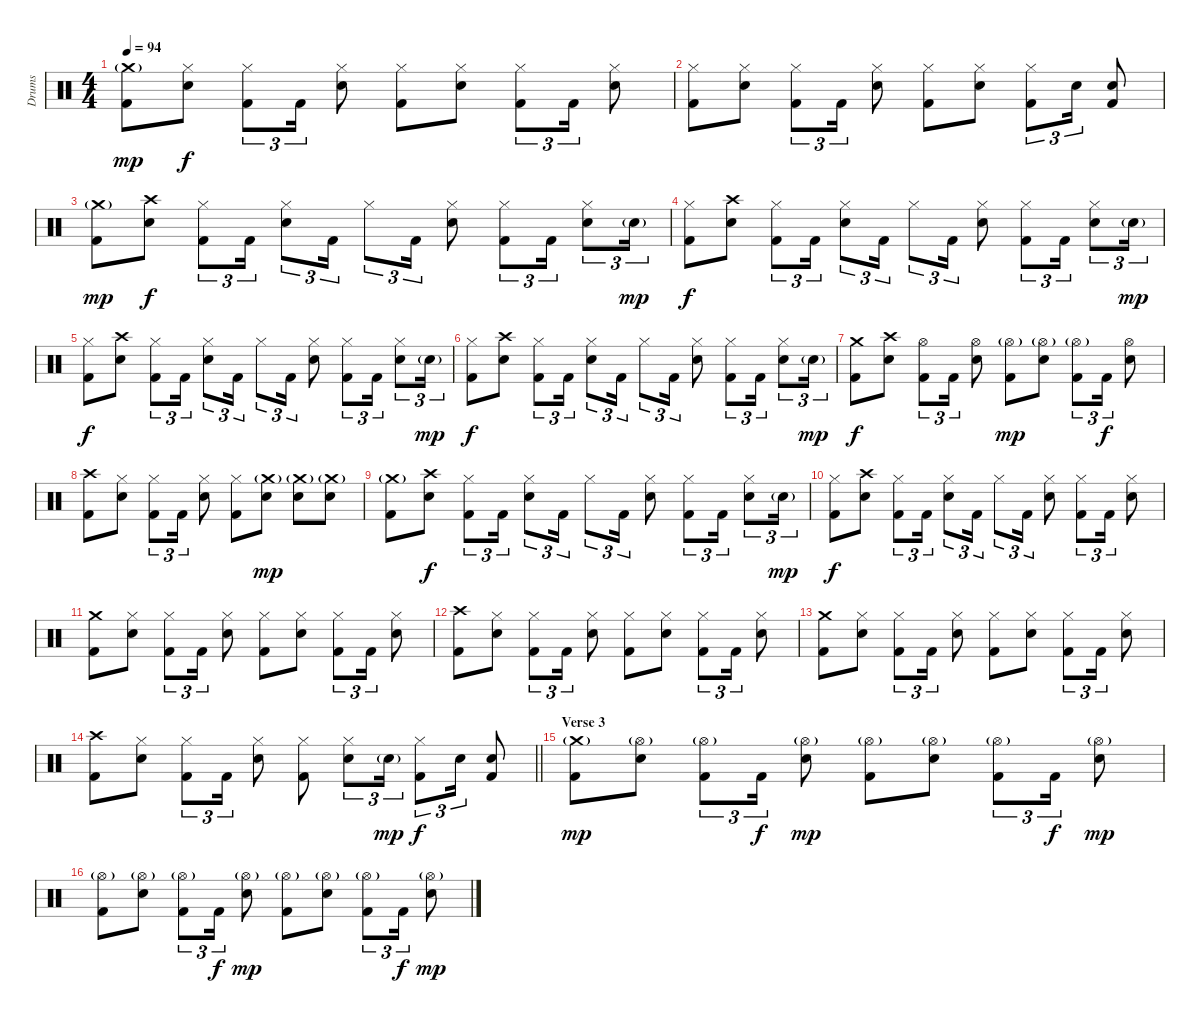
\track ("Drums" "Drums") {instrument percussion}
\staff {score}
\articulation defaults
\ts (4 4)
\tempo 94
\clef neutral
\ks c
("Crash medium (hit)"{g} "Kick (hit) 2").8{dy mp} ("Hi-Hat (closed)" "Electric Snare (hit)").8{dy f} ("Hi-Hat (closed)" "Kick (hit) 2").8{tu (3 2)} "Kick (hit) 2".16{tu (3 2)} ("Hi-Hat (closed)" "Electric Snare (hit)").8 ("Hi-Hat (closed)" "Kick (hit) 2").8 ("Hi-Hat (closed)" "Electric Snare (hit)").8 ("Hi-Hat (closed)" "Kick (hit) 2").8{tu (3 2)} "Kick (hit) 2".16{tu (3 2)} ("Hi-Hat (closed)" "Electric Snare (hit)").8 |
("Hi-Hat (closed)" "Kick (hit) 2").8 ("Hi-Hat (closed)" "Electric Snare (hit)").8 ("Hi-Hat (closed)" "Kick (hit) 2").8{tu (3 2)} "Kick (hit) 2".16{tu (3 2)} ("Hi-Hat (closed)" "Electric Snare (hit)").8 ("Hi-Hat (closed)" "Kick (hit) 2").8 ("Hi-Hat (closed)" "Electric Snare (hit)").8 ("Hi-Hat (closed)" "Kick (hit) 2").8{tu (3 2)} "Electric Snare (hit)".16{tu (3 2)} ("Electric Snare (hit)" "Kick (hit) 2").8 |
("Crash medium (hit)"{g} "Kick (hit) 2").8{dy mp} ("Crash high (hit)" "Electric Snare (hit)").8{dy f} ("Hi-Hat (closed)" "Kick (hit) 2").8{tu (3 2)} "Kick (hit) 2".16{tu (3 2)} ("Hi-Hat (closed)" "Electric Snare (hit)").8{tu (3 2)} "Kick (hit) 2".16{tu (3 2)} "Hi-Hat (closed)".8{tu (3 2)} "Kick (hit) 2".16{tu (3 2)} ("Hi-Hat (closed)" "Electric Snare (hit)").8 ("Hi-Hat (closed)" "Kick (hit) 2").8{tu (3 2)} "Kick (hit) 2".16{tu (3 2)} ("Hi-Hat (closed)" "Electric Snare (hit)").8{tu (3 2)} "Electric Snare (hit)"{g}.16{tu (3 2) dy mp} |
("Hi-Hat (closed)" "Kick (hit) 2").8{dy f} ("Crash high (hit)" "Electric Snare (hit)").8 ("Hi-Hat (closed)" "Kick (hit) 2").8{tu (3 2)} "Kick (hit) 2".16{tu (3 2)} ("Hi-Hat (closed)" "Electric Snare (hit)").8{tu (3 2)} "Kick (hit) 2".16{tu (3 2)} "Hi-Hat (closed)".8{tu (3 2)} "Kick (hit) 2".16{tu (3 2)} ("Hi-Hat (closed)" "Electric Snare (hit)").8 ("Hi-Hat (closed)" "Kick (hit) 2").8{tu (3 2)} "Kick (hit) 2".16{tu (3 2)} ("Hi-Hat (closed)" "Electric Snare (hit)").8{tu (3 2)} "Electric Snare (hit)"{g}.16{tu (3 2) dy mp} |
("Hi-Hat (closed)" "Kick (hit) 2").8{dy f} ("Crash high (hit)" "Electric Snare (hit)").8 ("Hi-Hat (closed)" "Kick (hit) 2").8{tu (3 2)} "Kick (hit) 2".16{tu (3 2)} ("Hi-Hat (closed)" "Electric Snare (hit)").8{tu (3 2)} "Kick (hit) 2".16{tu (3 2)} "Hi-Hat (closed)".8{tu (3 2)} "Kick (hit) 2".16{tu (3 2)} ("Hi-Hat (closed)" "Electric Snare (hit)").8 ("Hi-Hat (closed)" "Kick (hit) 2").8{tu (3 2)} "Kick (hit) 2".16{tu (3 2)} ("Hi-Hat (closed)" "Electric Snare (hit)").8{tu (3 2)} "Electric Snare (hit)"{g}.16{tu (3 2) dy mp} |
("Hi-Hat (closed)" "Kick (hit) 2").8{dy f} ("Crash high (hit)" "Electric Snare (hit)").8 ("Hi-Hat (closed)" "Kick (hit) 2").8{tu (3 2)} "Kick (hit) 2".16{tu (3 2)} ("Hi-Hat (closed)" "Electric Snare (hit)").8{tu (3 2)} "Kick (hit) 2".16{tu (3 2)} "Hi-Hat (closed)".8{tu (3 2)} "Kick (hit) 2".16{tu (3 2)} ("Hi-Hat (closed)" "Electric Snare (hit)").8 ("Hi-Hat (closed)" "Kick (hit) 2").8{tu (3 2)} "Kick (hit) 2".16{tu (3 2)} ("Hi-Hat (closed)" "Electric Snare (hit)").8{tu (3 2)} "Electric Snare (hit)"{g}.16{tu (3 2) dy mp} |
("Crash medium (hit)" "Kick (hit) 2").8{dy f} ("Crash high (hit)" "Electric Snare (hit)").8 ("Hi-Hat (open)" "Kick (hit) 2").8{tu (3 2)} "Kick (hit) 2".16{tu (3 2)} ("Hi-Hat (open)" "Electric Snare (hit)").8 ("Hi-Hat (open)"{g} "Kick (hit) 2").8{dy mp} ("Hi-Hat (open)"{g} "Electric Snare (hit)").8 ("Hi-Hat (open)"{g} "Kick (hit) 2").8{tu (3 2)} "Kick (hit) 2".16{tu (3 2) dy f} ("Hi-Hat (open)" "Electric Snare (hit)").8 |
("Crash high (hit)" "Kick (hit) 2").8 ("Hi-Hat (closed)" "Electric Snare (hit)").8 ("Hi-Hat (closed)" "Kick (hit) 2").8{tu (3 2)} "Kick (hit) 2".16{tu (3 2)} ("Hi-Hat (closed)" "Electric Snare (hit)").8 ("Hi-Hat (closed)" "Kick (hit) 2").8 ("Crash medium (hit)"{g} "Electric Snare (hit)").8{dy mp} ("Crash medium (hit)"{g} "Electric Snare (hit)").8 ("Crash medium (hit)"{g} "Electric Snare (hit)").8 |
("Crash medium (hit)"{g} "Kick (hit) 2").8 ("Crash high (hit)" "Electric Snare (hit)").8{dy f} ("Hi-Hat (closed)" "Kick (hit) 2").8{tu (3 2)} "Kick (hit) 2".16{tu (3 2)} ("Hi-Hat (closed)" "Electric Snare (hit)").8{tu (3 2)} "Kick (hit) 2".16{tu (3 2)} "Hi-Hat (closed)".8{tu (3 2)} "Kick (hit) 2".16{tu (3 2)} ("Hi-Hat (closed)" "Electric Snare (hit)").8 ("Hi-Hat (closed)" "Kick (hit) 2").8{tu (3 2)} "Kick (hit) 2".16{tu (3 2)} ("Hi-Hat (closed)" "Electric Snare (hit)").8{tu (3 2)} "Electric Snare (hit)"{g}.16{tu (3 2) dy mp} |
("Hi-Hat (closed)" "Kick (hit) 2").8{dy f} ("Crash high (hit)" "Electric Snare (hit)").8 ("Hi-Hat (closed)" "Kick (hit) 2").8{tu (3 2)} "Kick (hit) 2".16{tu (3 2)} ("Hi-Hat (closed)" "Electric Snare (hit)").8{tu (3 2)} "Kick (hit) 2".16{tu (3 2)} "Hi-Hat (closed)".8{tu (3 2)} "Kick (hit) 2".16{tu (3 2)} ("Hi-Hat (closed)" "Electric Snare (hit)").8 ("Hi-Hat (closed)" "Kick (hit) 2").8{tu (3 2)} "Kick (hit) 2".16{tu (3 2)} ("Hi-Hat (closed)" "Electric Snare (hit)").8 |
("Crash medium (hit)" "Kick (hit) 2").8 ("Hi-Hat (closed)" "Electric Snare (hit)").8 ("Hi-Hat (closed)" "Kick (hit) 2").8{tu (3 2)} "Kick (hit) 2".16{tu (3 2)} ("Hi-Hat (closed)" "Electric Snare (hit)").8 ("Hi-Hat (closed)" "Kick (hit) 2").8 ("Hi-Hat (closed)" "Electric Snare (hit)").8 ("Hi-Hat (closed)" "Kick (hit) 2").8{tu (3 2)} "Kick (hit) 2".16{tu (3 2)} ("Hi-Hat (closed)" "Electric Snare (hit)").8 |
("Crash high (hit)" "Kick (hit) 2").8 ("Hi-Hat (closed)" "Electric Snare (hit)").8 ("Hi-Hat (closed)" "Kick (hit) 2").8{tu (3 2)} "Kick (hit) 2".16{tu (3 2)} ("Hi-Hat (closed)" "Electric Snare (hit)").8 ("Hi-Hat (closed)" "Kick (hit) 2").8 ("Hi-Hat (closed)" "Electric Snare (hit)").8 ("Hi-Hat (closed)" "Kick (hit) 2").8{tu (3 2)} "Kick (hit) 2".16{tu (3 2)} ("Hi-Hat (closed)" "Electric Snare (hit)").8 |
("Crash medium (hit)" "Kick (hit) 2").8 ("Hi-Hat (closed)" "Electric Snare (hit)").8 ("Hi-Hat (closed)" "Kick (hit) 2").8{tu (3 2)} "Kick (hit) 2".16{tu (3 2)} ("Hi-Hat (closed)" "Electric Snare (hit)").8 ("Hi-Hat (closed)" "Kick (hit) 2").8 ("Hi-Hat (closed)" "Electric Snare (hit)").8 ("Hi-Hat (closed)" "Kick (hit) 2").8{tu (3 2)} "Kick (hit) 2".16{tu (3 2)} ("Hi-Hat (closed)" "Electric Snare (hit)").8 |
\barLineRight lightlight
("Crash high (hit)" "Kick (hit) 2").8 ("Hi-Hat (closed)" "Electric Snare (hit)").8 ("Hi-Hat (closed)" "Kick (hit) 2").8{tu (3 2)} "Kick (hit) 2".16{tu (3 2)} ("Hi-Hat (closed)" "Electric Snare (hit)").8 ("Hi-Hat (closed)" "Kick (hit) 2").8 ("Hi-Hat (closed)" "Electric Snare (hit)").8{tu (3 2)} "Electric Snare (hit)"{g}.16{tu (3 2) dy mp} ("Hi-Hat (closed)" "Kick (hit) 2").8{tu (3 2) dy f} "Electric Snare (hit)".16{tu (3 2)} ("Electric Snare (hit)" "Kick (hit) 2").8 |
\section ("" "Verse 3")
("Crash medium (hit)"{g} "Kick (hit) 2").8{dy mp} ("Hi-Hat (open)"{g} "Electric Snare (hit)").8 ("Hi-Hat (open)"{g} "Kick (hit) 2").8{tu (3 2)} "Kick (hit) 2".16{tu (3 2) dy f} ("Hi-Hat (open)"{g} "Electric Snare (hit)").8{dy mp} ("Hi-Hat (open)"{g} "Kick (hit) 2").8 ("Hi-Hat (open)"{g} "Electric Snare (hit)").8 ("Hi-Hat (open)"{g} "Kick (hit) 2").8{tu (3 2)} "Kick (hit) 2".16{tu (3 2) dy f} ("Hi-Hat (open)"{g} "Electric Snare (hit)").8{dy mp} |
("Hi-Hat (open)"{g} "Kick (hit) 2").8 ("Hi-Hat (open)"{g} "Electric Snare (hit)").8 ("Hi-Hat (open)"{g} "Kick (hit) 2").8{tu (3 2)} "Kick (hit) 2".16{tu (3 2) dy f} ("Hi-Hat (open)"{g} "Electric Snare (hit)").8{dy mp} ("Hi-Hat (open)"{g} "Kick (hit) 2").8 ("Hi-Hat (open)"{g} "Electric Snare (hit)").8 ("Hi-Hat (open)"{g} "Kick (hit) 2").8{tu (3 2)} "Kick (hit) 2".16{tu (3 2) dy f} ("Hi-Hat (open)"{g} "Electric Snare (hit)").8{dy mp}
